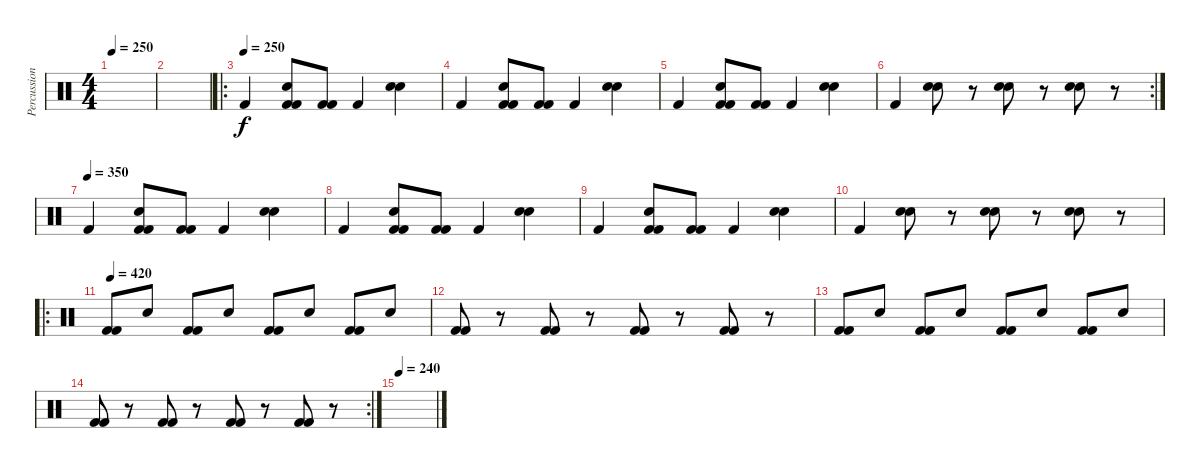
\track ("Percussions" "Percussion") {instrument percussion}
\staff {score}
\articulation defaults
\ts (4 4)
\tempo 250
\clef neutral
\ks c
|
|
\ro
\tempo (250)
"Kick (hit) 2".4 ("Electric Snare (hit)" "Kick (hit) 2" "Kick (hit) 2").8 ("Kick (hit) 2" "Kick (hit) 2").8 "Kick (hit) 2".4 ("Hand Clap (hit)" "Snare (hit) 2").4 |
"Kick (hit) 2".4 ("Electric Snare (hit)" "Kick (hit) 2" "Kick (hit) 2").8 ("Kick (hit) 2" "Kick (hit) 2").8 "Kick (hit) 2".4 ("Hand Clap (hit)" "Snare (hit) 2").4 |
"Kick (hit) 2".4 ("Electric Snare (hit)" "Kick (hit) 2" "Kick (hit) 2").8 ("Kick (hit) 2" "Kick (hit) 2").8 "Kick (hit) 2".4 ("Hand Clap (hit)" "Snare (hit) 2").4 |
\rc 2 "Kick (hit) 2".4
("Hand Clap (hit)" "Hand Clap (hit)").8 r.8 ("Hand Clap (hit)" "Hand Clap (hit)").8 r.8 ("Hand Clap (hit)" "Hand Clap (hit)").8 r.8 |
\tempo (350)
"Kick (hit) 2".4 ("Electric Snare (hit)" "Kick (hit) 2" "Kick (hit) 2").8 ("Kick (hit) 2" "Kick (hit) 2").8 "Kick (hit) 2".4 ("Hand Clap (hit)" "Snare (hit) 2").4 |
"Kick (hit) 2".4 ("Electric Snare (hit)" "Kick (hit) 2" "Kick (hit) 2").8 ("Kick (hit) 2" "Kick (hit) 2").8 "Kick (hit) 2".4 ("Hand Clap (hit)" "Snare (hit) 2").4 |
"Kick (hit) 2".4 ("Electric Snare (hit)" "Kick (hit) 2" "Kick (hit) 2").8 ("Kick (hit) 2" "Kick (hit) 2").8 "Kick (hit) 2".4 ("Hand Clap (hit)" "Snare (hit) 2").4 |
"Kick (hit) 2".4 ("Hand Clap (hit)" "Hand Clap (hit)").8 r.8 ("Hand Clap (hit)" "Hand Clap (hit)").8 r.8 ("Hand Clap (hit)" "Hand Clap (hit)").8 r.8 |
\ro
\tempo 420
("Kick (hit) 2" "Kick (hit) 2").8 "Electric Snare (hit)".8 ("Kick (hit) 2" "Kick (hit) 2").8 "Electric Snare (hit)".8 ("Kick (hit) 2" "Kick (hit) 2").8 "Electric Snare (hit)".8 ("Kick (hit) 2" "Kick (hit) 2").8 "Electric Snare (hit)".8 |
("Kick (hit) 2" "Kick (hit) 2").8 r.8 ("Kick (hit) 2" "Kick (hit) 2").8 r.8 ("Kick (hit) 2" "Kick (hit) 2").8 r.8 ("Kick (hit) 2" "Kick (hit) 2").8 r.8 |
("Kick (hit) 2" "Kick (hit) 2").8 "Electric Snare (hit)".8 ("Kick (hit) 2" "Kick (hit) 2").8 "Electric Snare (hit)".8 ("Kick (hit) 2" "Kick (hit) 2").8 "Electric Snare (hit)".8 ("Kick (hit) 2" "Kick (hit) 2").8 "Electric Snare (hit)".8 |
\rc 2
("Kick (hit) 2" "Kick (hit) 2").8 r.8 ("Kick (hit) 2" "Kick (hit) 2").8 r.8 ("Kick (hit) 2" "Kick (hit) 2").8 r.8 ("Kick (hit) 2" "Kick (hit) 2").8 r.8 |
\tempo 240
